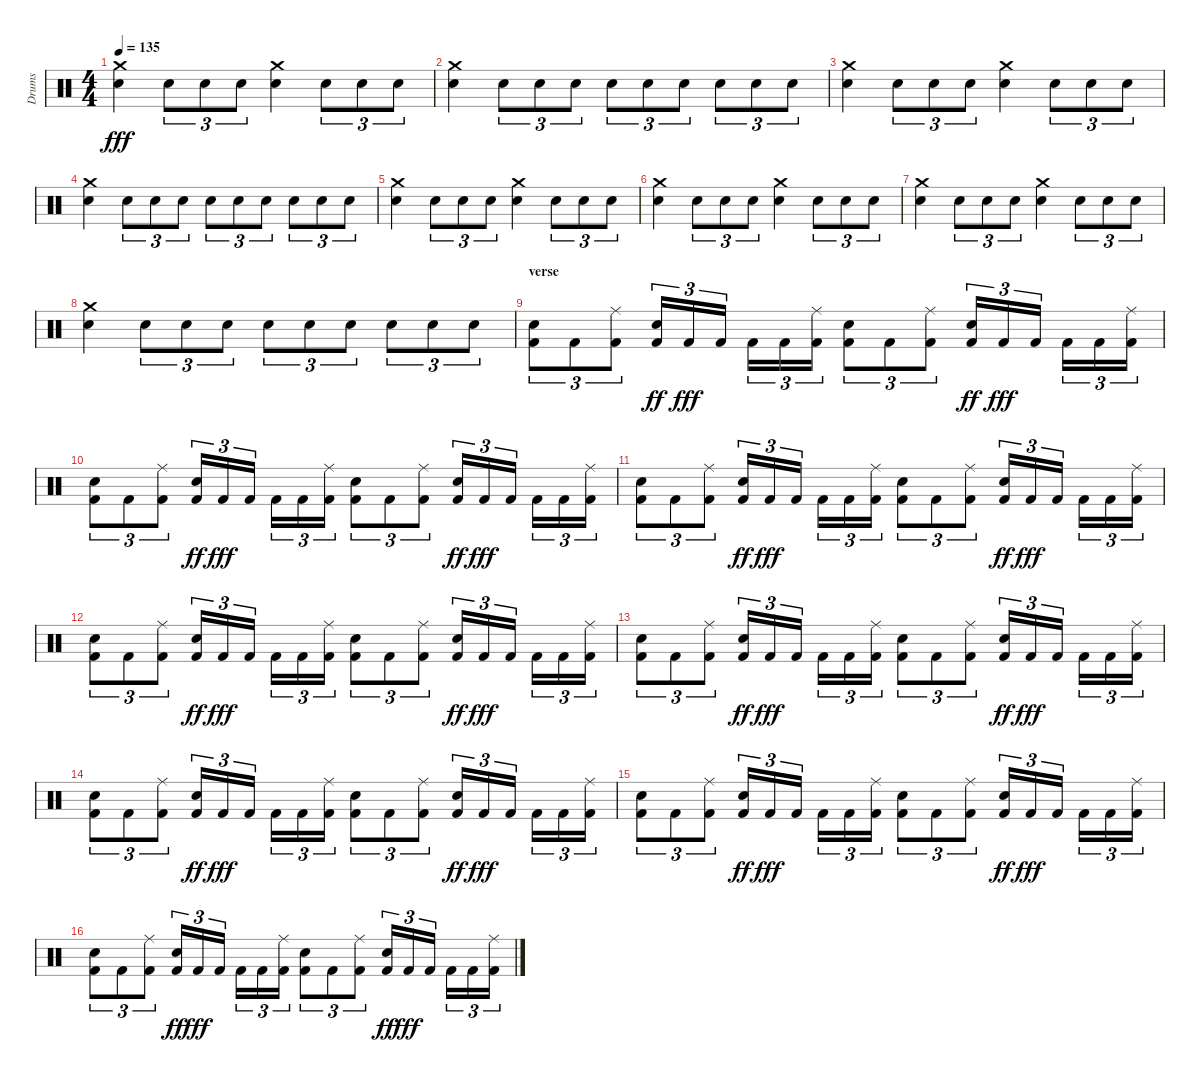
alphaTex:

\track ("Drums" "Drums") {instrument percussion}
\staff {score}
\articulation defaults
\ts (4 4)
\tempo 135
\clef neutral
\ks c
("Electric Snare (hit)" "Crash medium (hit)").4{dy fff} "Electric Snare (hit)".8{tu (3 2)} "Electric Snare (hit)".8{tu (3 2)} "Electric Snare (hit)".8{tu (3 2)} ("Electric Snare (hit)" "Crash medium (hit)").4 "Electric Snare (hit)".8{tu (3 2)} "Electric Snare (hit)".8{tu (3 2)} "Electric Snare (hit)".8{tu (3 2)} |
("Electric Snare (hit)" "Crash medium (hit)").4 "Electric Snare (hit)".8{tu (3 2)} "Electric Snare (hit)".8{tu (3 2)} "Electric Snare (hit)".8{tu (3 2)} "Electric Snare (hit)".8{tu (3 2)} "Electric Snare (hit)".8{tu (3 2)} "Electric Snare (hit)".8{tu (3 2)} "Electric Snare (hit)".8{tu (3 2)} "Electric Snare (hit)".8{tu (3 2)} "Electric Snare (hit)".8{tu (3 2)} |
("Electric Snare (hit)" "Crash medium (hit)").4 "Electric Snare (hit)".8{tu (3 2)} "Electric Snare (hit)".8{tu (3 2)} "Electric Snare (hit)".8{tu (3 2)} ("Electric Snare (hit)" "Crash medium (hit)").4 "Electric Snare (hit)".8{tu (3 2)} "Electric Snare (hit)".8{tu (3 2)} "Electric Snare (hit)".8{tu (3 2)} |
("Electric Snare (hit)" "Crash medium (hit)").4 "Electric Snare (hit)".8{tu (3 2)} "Electric Snare (hit)".8{tu (3 2)} "Electric Snare (hit)".8{tu (3 2)} "Electric Snare (hit)".8{tu (3 2)} "Electric Snare (hit)".8{tu (3 2)} "Electric Snare (hit)".8{tu (3 2)} "Electric Snare (hit)".8{tu (3 2)} "Electric Snare (hit)".8{tu (3 2)} "Electric Snare (hit)".8{tu (3 2)} |
("Electric Snare (hit)" "Crash medium (hit)").4 "Electric Snare (hit)".8{tu (3 2)} "Electric Snare (hit)".8{tu (3 2)} "Electric Snare (hit)".8{tu (3 2)} ("Electric Snare (hit)" "Crash medium (hit)").4 "Electric Snare (hit)".8{tu (3 2)} "Electric Snare (hit)".8{tu (3 2)} "Electric Snare (hit)".8{tu (3 2)} |
("Electric Snare (hit)" "Crash medium (hit)").4 "Electric Snare (hit)".8{tu (3 2)} "Electric Snare (hit)".8{tu (3 2)} "Electric Snare (hit)".8{tu (3 2)} ("Electric Snare (hit)" "Crash medium (hit)").4 "Electric Snare (hit)".8{tu (3 2)} "Electric Snare (hit)".8{tu (3 2)} "Electric Snare (hit)".8{tu (3 2)} |
("Electric Snare (hit)" "Crash medium (hit)").4 "Electric Snare (hit)".8{tu (3 2)} "Electric Snare (hit)".8{tu (3 2)} "Electric Snare (hit)".8{tu (3 2)} ("Electric Snare (hit)" "Crash medium (hit)").4 "Electric Snare (hit)".8{tu (3 2)} "Electric Snare (hit)".8{tu (3 2)} "Electric Snare (hit)".8{tu (3 2)} |
("Electric Snare (hit)" "Crash medium (hit)").4 "Electric Snare (hit)".8{tu (3 2)} "Electric Snare (hit)".8{tu (3 2)} "Electric Snare (hit)".8{tu (3 2)} "Electric Snare (hit)".8{tu (3 2)} "Electric Snare (hit)".8{tu (3 2)} "Electric Snare (hit)".8{tu (3 2)} "Electric Snare (hit)".8{tu (3 2)} "Electric Snare (hit)".8{tu (3 2)} "Electric Snare (hit)".8{tu (3 2)} |
\section ("" "verse")
("Electric Snare (hit)" "Kick (hit) 2").8{tu (3 2)} "Kick (hit) 2".8{tu (3 2)} ("Kick (hit) 2" "Ride (middle)").8{tu (3 2)} ("Kick (hit) 2" "Electric Snare (hit)").16{tu (3 2) dy ff} "Kick (hit) 2".16{tu (3 2) dy fff} "Kick (hit) 2".16{tu (3 2)} "Kick (hit) 2".16{tu (3 2)} "Kick (hit) 2".16{tu (3 2)} ("Kick (hit) 2" "Ride (middle)").16{tu (3 2)} ("Electric Snare (hit)" "Kick (hit) 2").8{tu (3 2)} "Kick (hit) 2".8{tu (3 2)} ("Kick (hit) 2" "Ride (middle)").8{tu (3 2)} ("Kick (hit) 2" "Electric Snare (hit)").16{tu (3 2) dy ff} "Kick (hit) 2".16{tu (3 2) dy fff} "Kick (hit) 2".16{tu (3 2)} "Kick (hit) 2".16{tu (3 2)} "Kick (hit) 2".16{tu (3 2)} ("Kick (hit) 2" "Ride (middle)").16{tu (3 2)} |
("Electric Snare (hit)" "Kick (hit) 2").8{tu (3 2)} "Kick (hit) 2".8{tu (3 2)} ("Kick (hit) 2" "Ride (middle)").8{tu (3 2)} ("Kick (hit) 2" "Electric Snare (hit)").16{tu (3 2) dy ff} "Kick (hit) 2".16{tu (3 2) dy fff} "Kick (hit) 2".16{tu (3 2)} "Kick (hit) 2".16{tu (3 2)} "Kick (hit) 2".16{tu (3 2)} ("Kick (hit) 2" "Ride (middle)").16{tu (3 2)} ("Electric Snare (hit)" "Kick (hit) 2").8{tu (3 2)} "Kick (hit) 2".8{tu (3 2)} ("Kick (hit) 2" "Ride (middle)").8{tu (3 2)} ("Kick (hit) 2" "Electric Snare (hit)").16{tu (3 2) dy ff} "Kick (hit) 2".16{tu (3 2) dy fff} "Kick (hit) 2".16{tu (3 2)} "Kick (hit) 2".16{tu (3 2)} "Kick (hit) 2".16{tu (3 2)} ("Kick (hit) 2" "Ride (middle)").16{tu (3 2)} |
("Electric Snare (hit)" "Kick (hit) 2").8{tu (3 2)} "Kick (hit) 2".8{tu (3 2)} ("Kick (hit) 2" "Ride (middle)").8{tu (3 2)} ("Kick (hit) 2" "Electric Snare (hit)").16{tu (3 2) dy ff} "Kick (hit) 2".16{tu (3 2) dy fff} "Kick (hit) 2".16{tu (3 2)} "Kick (hit) 2".16{tu (3 2)} "Kick (hit) 2".16{tu (3 2)} ("Kick (hit) 2" "Ride (middle)").16{tu (3 2)} ("Electric Snare (hit)" "Kick (hit) 2").8{tu (3 2)} "Kick (hit) 2".8{tu (3 2)} ("Kick (hit) 2" "Ride (middle)").8{tu (3 2)} ("Kick (hit) 2" "Electric Snare (hit)").16{tu (3 2) dy ff} "Kick (hit) 2".16{tu (3 2) dy fff} "Kick (hit) 2".16{tu (3 2)} "Kick (hit) 2".16{tu (3 2)} "Kick (hit) 2".16{tu (3 2)} ("Kick (hit) 2" "Ride (middle)").16{tu (3 2)} |
("Electric Snare (hit)" "Kick (hit) 2").8{tu (3 2)} "Kick (hit) 2".8{tu (3 2)} ("Kick (hit) 2" "Ride (middle)").8{tu (3 2)} ("Kick (hit) 2" "Electric Snare (hit)").16{tu (3 2) dy ff} "Kick (hit) 2".16{tu (3 2) dy fff} "Kick (hit) 2".16{tu (3 2)} "Kick (hit) 2".16{tu (3 2)} "Kick (hit) 2".16{tu (3 2)} ("Kick (hit) 2" "Ride (middle)").16{tu (3 2)} ("Electric Snare (hit)" "Kick (hit) 2").8{tu (3 2)} "Kick (hit) 2".8{tu (3 2)} ("Kick (hit) 2" "Ride (middle)").8{tu (3 2)} ("Kick (hit) 2" "Electric Snare (hit)").16{tu (3 2) dy ff} "Kick (hit) 2".16{tu (3 2) dy fff} "Kick (hit) 2".16{tu (3 2)} "Kick (hit) 2".16{tu (3 2)} "Kick (hit) 2".16{tu (3 2)} ("Kick (hit) 2" "Ride (middle)").16{tu (3 2)} |
("Electric Snare (hit)" "Kick (hit) 2").8{tu (3 2)} "Kick (hit) 2".8{tu (3 2)} ("Kick (hit) 2" "Ride (middle)").8{tu (3 2)} ("Kick (hit) 2" "Electric Snare (hit)").16{tu (3 2) dy ff} "Kick (hit) 2".16{tu (3 2) dy fff} "Kick (hit) 2".16{tu (3 2)} "Kick (hit) 2".16{tu (3 2)} "Kick (hit) 2".16{tu (3 2)} ("Kick (hit) 2" "Ride (middle)").16{tu (3 2)} ("Electric Snare (hit)" "Kick (hit) 2").8{tu (3 2)} "Kick (hit) 2".8{tu (3 2)} ("Kick (hit) 2" "Ride (middle)").8{tu (3 2)} ("Kick (hit) 2" "Electric Snare (hit)").16{tu (3 2) dy ff} "Kick (hit) 2".16{tu (3 2) dy fff} "Kick (hit) 2".16{tu (3 2)} "Kick (hit) 2".16{tu (3 2)} "Kick (hit) 2".16{tu (3 2)} ("Kick (hit) 2" "Ride (middle)").16{tu (3 2)} |
("Electric Snare (hit)" "Kick (hit) 2").8{tu (3 2)} "Kick (hit) 2".8{tu (3 2)} ("Kick (hit) 2" "Ride (middle)").8{tu (3 2)} ("Kick (hit) 2" "Electric Snare (hit)").16{tu (3 2) dy ff} "Kick (hit) 2".16{tu (3 2) dy fff} "Kick (hit) 2".16{tu (3 2)} "Kick (hit) 2".16{tu (3 2)} "Kick (hit) 2".16{tu (3 2)} ("Kick (hit) 2" "Ride (middle)").16{tu (3 2)} ("Electric Snare (hit)" "Kick (hit) 2").8{tu (3 2)} "Kick (hit) 2".8{tu (3 2)} ("Kick (hit) 2" "Ride (middle)").8{tu (3 2)} ("Kick (hit) 2" "Electric Snare (hit)").16{tu (3 2) dy ff} "Kick (hit) 2".16{tu (3 2) dy fff} "Kick (hit) 2".16{tu (3 2)} "Kick (hit) 2".16{tu (3 2)} "Kick (hit) 2".16{tu (3 2)} ("Kick (hit) 2" "Ride (middle)").16{tu (3 2)} |
("Electric Snare (hit)" "Kick (hit) 2").8{tu (3 2)} "Kick (hit) 2".8{tu (3 2)} ("Kick (hit) 2" "Ride (middle)").8{tu (3 2)} ("Kick (hit) 2" "Electric Snare (hit)").16{tu (3 2) dy ff} "Kick (hit) 2".16{tu (3 2) dy fff} "Kick (hit) 2".16{tu (3 2)} "Kick (hit) 2".16{tu (3 2)} "Kick (hit) 2".16{tu (3 2)} ("Kick (hit) 2" "Ride (middle)").16{tu (3 2)} ("Electric Snare (hit)" "Kick (hit) 2").8{tu (3 2)} "Kick (hit) 2".8{tu (3 2)} ("Kick (hit) 2" "Ride (middle)").8{tu (3 2)} ("Kick (hit) 2" "Electric Snare (hit)").16{tu (3 2) dy ff} "Kick (hit) 2".16{tu (3 2) dy fff} "Kick (hit) 2".16{tu (3 2)} "Kick (hit) 2".16{tu (3 2)} "Kick (hit) 2".16{tu (3 2)} ("Kick (hit) 2" "Ride (middle)").16{tu (3 2)} |
("Electric Snare (hit)" "Kick (hit) 2").8{tu (3 2)} "Kick (hit) 2".8{tu (3 2)} ("Kick (hit) 2" "Ride (middle)").8{tu (3 2)} ("Kick (hit) 2" "Electric Snare (hit)").16{tu (3 2) dy ff} "Kick (hit) 2".16{tu (3 2) dy fff} "Kick (hit) 2".16{tu (3 2)} "Kick (hit) 2".16{tu (3 2)} "Kick (hit) 2".16{tu (3 2)} ("Kick (hit) 2" "Ride (middle)").16{tu (3 2)} ("Electric Snare (hit)" "Kick (hit) 2").8{tu (3 2)} "Kick (hit) 2".8{tu (3 2)} ("Kick (hit) 2" "Ride (middle)").8{tu (3 2)} ("Kick (hit) 2" "Electric Snare (hit)").16{tu (3 2) dy ff} "Kick (hit) 2".16{tu (3 2) dy fff} "Kick (hit) 2".16{tu (3 2)} "Kick (hit) 2".16{tu (3 2)} "Kick (hit) 2".16{tu (3 2)} ("Kick (hit) 2" "Ride (middle)").16{tu (3 2)}
